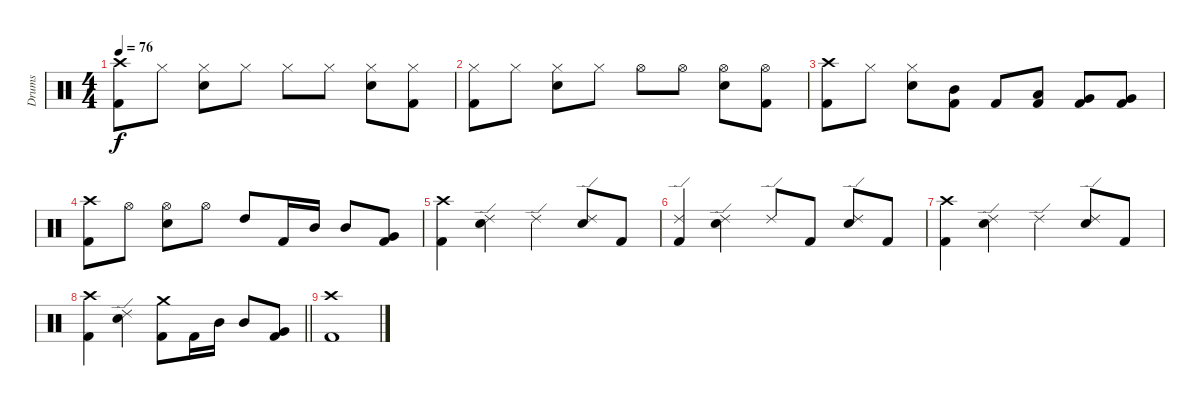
\track ("Drums" "Drums") {instrument percussion}
\staff {score}
\articulation defaults
\ts (4 4)
\tempo 76
\clef neutral
\ks c
("Crash high (hit)" "Kick (hit) 2").8{dy f} "Hi-Hat (closed)".8 ("Hi-Hat (closed)" "Electric Snare (hit)").8 "Hi-Hat (closed)".8 "Hi-Hat (closed)".8 "Hi-Hat (closed)".8 ("Hi-Hat (closed)" "Electric Snare (hit)").8 ("Hi-Hat (closed)" "Kick (hit) 2").8 |
("Hi-Hat (closed)" "Kick (hit) 2").8 "Hi-Hat (closed)".8 ("Hi-Hat (closed)" "Electric Snare (hit)").8 "Hi-Hat (closed)".8 "Hi-Hat (open)".8 "Hi-Hat (open)".8 ("Hi-Hat (open)" "Electric Snare (hit)").8 ("Hi-Hat (open)" "Kick (hit) 2").8 |
("Crash high (hit)" "Kick (hit) 2").8 "Hi-Hat (closed)".8 ("Hi-Hat (closed)" "Electric Snare (hit)").8 ("Mid Tom (hit)" "Kick (hit) 2").8 "Kick (hit) 2".8 ("Low Tom (hit)" "Kick (hit) 2").8 ("Very Low Tom (hit)" "Kick (hit) 2").8 ("Very Low Tom (hit)" "Kick (hit) 2").8 |
("Crash high (hit)" "Kick (hit) 2").8 "Hi-Hat (open)".8 ("Hi-Hat (open)" "Electric Snare (hit)").8 "Hi-Hat (open)".8 "High Tom (hit)".8 "Kick (hit) 2".16 "Mid Tom (hit)".16 "Mid Tom (hit)".8 ("Very Low Tom (hit)" "Kick (hit) 2").8 |
("Crash high (hit)" "Kick (hit) 2").4 ("Ride (edge) 2" "Electric Snare (hit)").4 "Ride (edge) 2".4 ("Ride (edge) 2" "Electric Snare (hit)").8 "Kick (hit) 2".8 |
("Ride (edge) 2" "Kick (hit) 2").4 ("Ride (edge) 2" "Electric Snare (hit)").4 "Ride (edge) 2".8 "Kick (hit) 2".8 ("Ride (edge) 2" "Electric Snare (hit)").8 "Kick (hit) 2".8 |
("Crash high (hit)" "Kick (hit) 2").4 ("Ride (edge) 2" "Electric Snare (hit)").4 "Ride (edge) 2".4 ("Ride (edge) 2" "Electric Snare (hit)").8 "Kick (hit) 2".8 |
\barLineRight lightlight
("Crash high (hit)" "Kick (hit) 2").4 ("Ride (edge) 2" "Electric Snare (hit)").4 ("Crash medium (hit)" "Kick (hit) 2").8 "Kick (hit) 2".16 "Mid Tom (hit)".16 "Mid Tom (hit)".8 ("Very Low Tom (hit)" "Kick (hit) 2").8 |
("Crash high (hit)" "Kick (hit) 2").1
